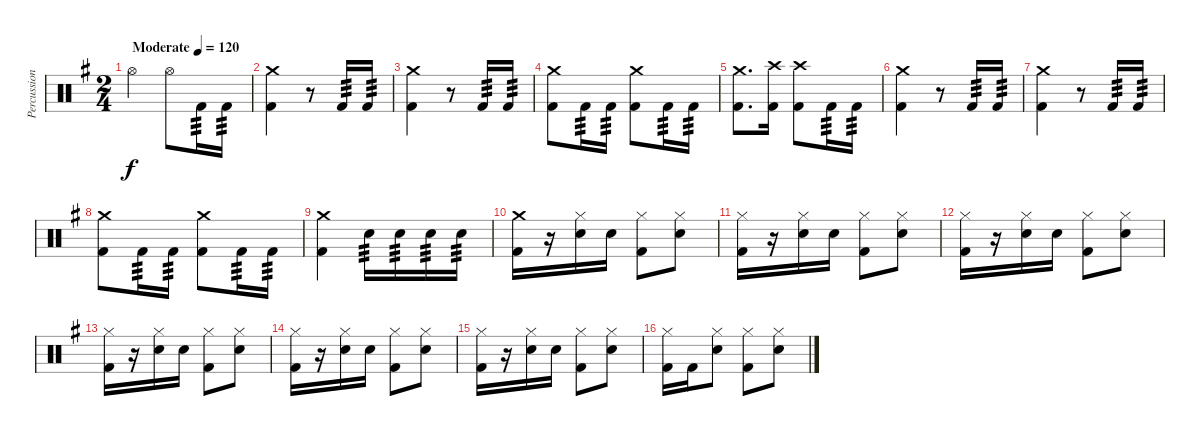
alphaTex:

\track ("Percussion" "Percussion") {instrument percussion}
\staff {score}
\articulation defaults
\ts (2 4)
\tempo (120 "Moderate")
\clef neutral
\ks g "Hi-Hat (open)".4{dy f} "Hi-Hat (open)".8 "Kick (hit) 2".16{tp 3} "Kick (hit) 2".16{tp 3}
|
("Crash medium (hit)" "Kick (hit) 2").4 r.8 "Kick (hit) 2".16{tp 3} "Kick (hit) 2".16{tp 3} |
("Crash medium (hit)" "Kick (hit) 2").4 r.8 "Kick (hit) 2".16{tp 3} "Kick (hit) 2".16{tp 3} |
("Crash medium (hit)" "Kick (hit) 2").8 "Kick (hit) 2".16{tp 3} "Kick (hit) 2".16{tp 3} ("Crash medium (hit)" "Kick (hit) 2").8 "Kick (hit) 2".16{tp 3} "Kick (hit) 2".16{tp 3} |
("Crash medium (hit)" "Kick (hit) 2").8{d} ("Crash high (hit)" "Kick (hit) 2").16 ("Crash high (hit)" "Kick (hit) 2").8 "Kick (hit) 2".16{tp 3} "Kick (hit) 2".16{tp 3} |
("Crash medium (hit)" "Kick (hit) 2").4 r.8 "Kick (hit) 2".16{tp 3} "Kick (hit) 2".16{tp 3} |
("Crash medium (hit)" "Kick (hit) 2").4 r.8 "Kick (hit) 2".16{tp 3} "Kick (hit) 2".16{tp 3} |
("Crash medium (hit)" "Kick (hit) 2").8 "Kick (hit) 2".16{tp 3} "Kick (hit) 2".16{tp 3} ("Crash medium (hit)" "Kick (hit) 2").8 "Kick (hit) 2".16{tp 3} "Kick (hit) 2".16{tp 3} |
("Crash medium (hit)" "Kick (hit) 2").4 "Snare (hit) 2".16{tp 3} "Snare (hit) 2".16{tp 3} "Snare (hit) 2".16{tp 3} "Snare (hit) 2".16{tp 3} |
("Crash medium (hit)" "Kick (hit) 2").16 r.16 ("Hi-Hat (closed)" "Snare (hit) 2").16 "Snare (hit) 2".16 ("Hi-Hat (closed)" "Kick (hit) 2").8 ("Hi-Hat (closed)" "Snare (hit) 2").8 |
("Hi-Hat (closed)" "Kick (hit) 2").16 r.16 ("Hi-Hat (closed)" "Snare (hit) 2").16 "Snare (hit) 2".16 ("Hi-Hat (closed)" "Kick (hit) 2").8 ("Hi-Hat (closed)" "Snare (hit) 2").8 |
("Hi-Hat (closed)" "Kick (hit) 2").16 r.16 ("Hi-Hat (closed)" "Snare (hit) 2").16 "Snare (hit) 2".16 ("Hi-Hat (closed)" "Kick (hit) 2").8 ("Hi-Hat (closed)" "Snare (hit) 2").8 |
("Hi-Hat (closed)" "Kick (hit) 2").16 r.16 ("Hi-Hat (closed)" "Snare (hit) 2").16 "Snare (hit) 2".16 ("Hi-Hat (closed)" "Kick (hit) 2").8 ("Hi-Hat (closed)" "Snare (hit) 2").8 |
("Hi-Hat (closed)" "Kick (hit) 2").16 r.16 ("Hi-Hat (closed)" "Snare (hit) 2").16 "Snare (hit) 2".16 ("Hi-Hat (closed)" "Kick (hit) 2").8 ("Hi-Hat (closed)" "Snare (hit) 2").8 |
("Hi-Hat (closed)" "Kick (hit) 2").16 r.16 ("Hi-Hat (closed)" "Snare (hit) 2").16 "Snare (hit) 2".16 ("Hi-Hat (closed)" "Kick (hit) 2").8 ("Hi-Hat (closed)" "Snare (hit) 2").8 |
("Hi-Hat (closed)" "Kick (hit) 2").16 "Kick (hit) 2".16 ("Hi-Hat (closed)" "Snare (hit) 2").8 ("Hi-Hat (closed)" "Kick (hit) 2").8 ("Hi-Hat (closed)" "Snare (hit) 2").8
